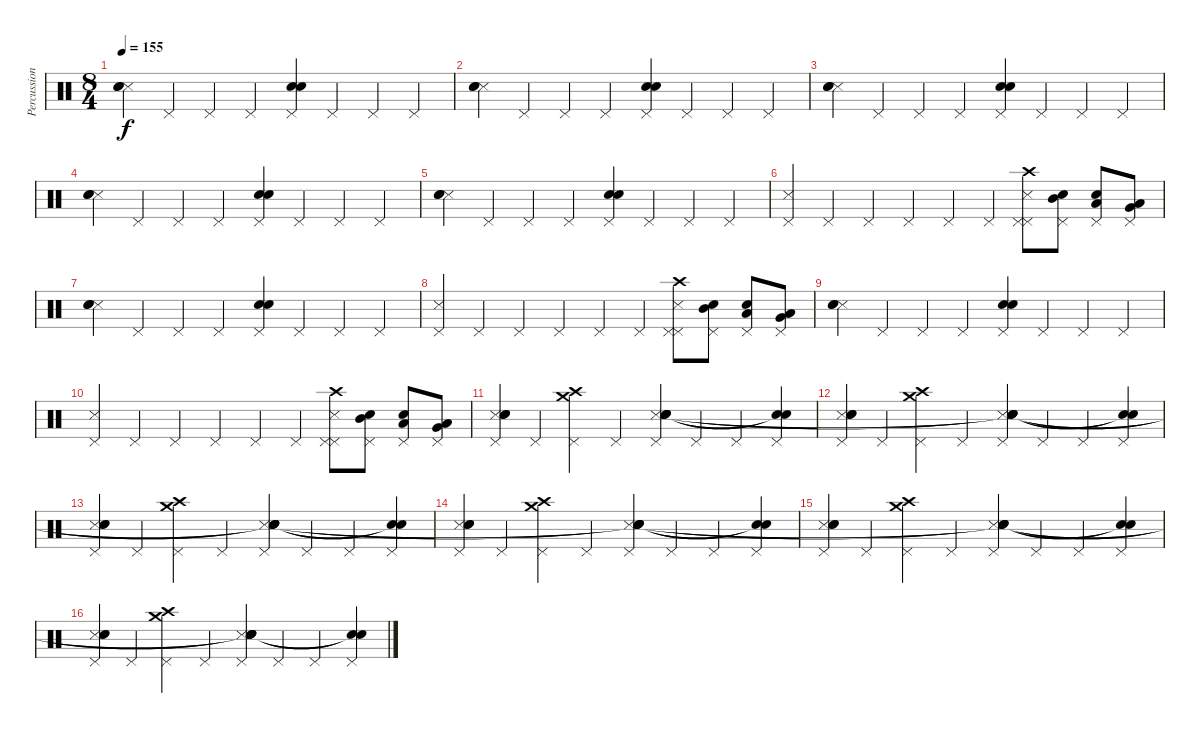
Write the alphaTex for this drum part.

\track ("Percussion" "Percussion") {instrument percussion}
\staff {score}
\articulation defaults
\ts (8 4)
\tempo 155
\clef neutral
\ks c
("Snare (side stick) 3" "Electric Snare (hit)" "Snare (hit) 2").4{dy f} "Pedal Hi-Hat (hit)".4 "Pedal Hi-Hat (hit)".4 "Pedal Hi-Hat (hit)".4 ("Pedal Hi-Hat (hit)" "Electric Snare (hit)" "Snare (hit) 2").4 "Pedal Hi-Hat (hit)".4 "Pedal Hi-Hat (hit)".4 "Pedal Hi-Hat (hit)".4 |
("Snare (side stick) 3" "Electric Snare (hit)" "Snare (hit) 2").4 "Pedal Hi-Hat (hit)".4 "Pedal Hi-Hat (hit)".4 "Pedal Hi-Hat (hit)".4 ("Pedal Hi-Hat (hit)" "Electric Snare (hit)" "Snare (hit) 2").4 "Pedal Hi-Hat (hit)".4 "Pedal Hi-Hat (hit)".4 "Pedal Hi-Hat (hit)".4 |
("Snare (side stick) 3" "Electric Snare (hit)" "Snare (hit) 2").4 "Pedal Hi-Hat (hit)".4 "Pedal Hi-Hat (hit)".4 "Pedal Hi-Hat (hit)".4 ("Pedal Hi-Hat (hit)" "Electric Snare (hit)" "Snare (hit) 2").4 "Pedal Hi-Hat (hit)".4 "Pedal Hi-Hat (hit)".4 "Pedal Hi-Hat (hit)".4 |
("Snare (side stick) 3" "Electric Snare (hit)" "Snare (hit) 2").4 "Pedal Hi-Hat (hit)".4 "Pedal Hi-Hat (hit)".4 "Pedal Hi-Hat (hit)".4 ("Pedal Hi-Hat (hit)" "Electric Snare (hit)" "Snare (hit) 2").4 "Pedal Hi-Hat (hit)".4 "Pedal Hi-Hat (hit)".4 "Pedal Hi-Hat (hit)".4 |
("Snare (side stick) 3" "Electric Snare (hit)" "Snare (hit) 2").4 "Pedal Hi-Hat (hit)".4 "Pedal Hi-Hat (hit)".4 "Pedal Hi-Hat (hit)".4 ("Pedal Hi-Hat (hit)" "Electric Snare (hit)" "Snare (hit) 2").4 "Pedal Hi-Hat (hit)".4 "Pedal Hi-Hat (hit)".4 "Pedal Hi-Hat (hit)".4 |
("Snare (side stick) 3" "Pedal Hi-Hat (hit)").4 "Pedal Hi-Hat (hit)".4 "Pedal Hi-Hat (hit)".4 "Pedal Hi-Hat (hit)".4 "Pedal Hi-Hat (hit)".4 "Pedal Hi-Hat (hit)".4 ("Pedal Hi-Hat (hit)" "Snare (side stick) 3" "Pedal Hi-Hat (hit)" "Crash high (hit)").8 ("Pedal Hi-Hat (hit)" "Snare (hit) 2" "Mid Tom (hit)").8 ("Pedal Hi-Hat (hit)" "Electric Snare (hit)" "Low Tom (hit)").8 ("Pedal Hi-Hat (hit)" "Low Floor Tom (hit)" "Very Low Tom (hit)").8 |
("Snare (side stick) 3" "Electric Snare (hit)" "Snare (hit) 2").4 "Pedal Hi-Hat (hit)".4 "Pedal Hi-Hat (hit)".4 "Pedal Hi-Hat (hit)".4 ("Pedal Hi-Hat (hit)" "Electric Snare (hit)" "Snare (hit) 2").4 "Pedal Hi-Hat (hit)".4 "Pedal Hi-Hat (hit)".4 "Pedal Hi-Hat (hit)".4 |
("Snare (side stick) 3" "Pedal Hi-Hat (hit)").4 "Pedal Hi-Hat (hit)".4 "Pedal Hi-Hat (hit)".4 "Pedal Hi-Hat (hit)".4 "Pedal Hi-Hat (hit)".4 "Pedal Hi-Hat (hit)".4 ("Pedal Hi-Hat (hit)" "Snare (side stick) 3" "Pedal Hi-Hat (hit)" "Crash high (hit)").8 ("Pedal Hi-Hat (hit)" "Snare (hit) 2" "Mid Tom (hit)").8 ("Pedal Hi-Hat (hit)" "Electric Snare (hit)" "Low Tom (hit)").8 ("Pedal Hi-Hat (hit)" "Low Floor Tom (hit)" "Very Low Tom (hit)").8 |
("Snare (side stick) 3" "Electric Snare (hit)" "Snare (hit) 2").4 "Pedal Hi-Hat (hit)".4 "Pedal Hi-Hat (hit)".4 "Pedal Hi-Hat (hit)".4 ("Pedal Hi-Hat (hit)" "Electric Snare (hit)" "Snare (hit) 2").4 "Pedal Hi-Hat (hit)".4 "Pedal Hi-Hat (hit)".4 "Pedal Hi-Hat (hit)".4 |
("Snare (side stick) 3" "Pedal Hi-Hat (hit)").4 "Pedal Hi-Hat (hit)".4 "Pedal Hi-Hat (hit)".4 "Pedal Hi-Hat (hit)".4 "Pedal Hi-Hat (hit)".4 "Pedal Hi-Hat (hit)".4 ("Pedal Hi-Hat (hit)" "Snare (side stick) 3" "Pedal Hi-Hat (hit)" "Crash high (hit)").8 ("Pedal Hi-Hat (hit)" "Snare (hit) 2" "Mid Tom (hit)").8 ("Pedal Hi-Hat (hit)" "Electric Snare (hit)" "Low Tom (hit)").8 ("Pedal Hi-Hat (hit)" "Low Floor Tom (hit)" "Very Low Tom (hit)").8 |
("Snare (side stick) 3" "Pedal Hi-Hat (hit)" "Electric Snare (hit)" "Snare (hit) 2").4 "Pedal Hi-Hat (hit)".4 ("Pedal Hi-Hat (hit)" "Crash medium (hit)" "Crash high (hit)").4 "Pedal Hi-Hat (hit)".4 ("Pedal Hi-Hat (hit)" "Snare (side stick) 3" "Electric Snare (hit)" "Snare (hit) 2" "Snare (hit)" "Snare (hit)").4 "Pedal Hi-Hat (hit)".4 "Pedal Hi-Hat (hit)".4 ("Pedal Hi-Hat (hit)" "Snare (hit)"{t} "Snare (hit)"{t}).4 |
("Snare (side stick) 3" "Pedal Hi-Hat (hit)" "Electric Snare (hit)" "Snare (hit) 2").4 "Pedal Hi-Hat (hit)".4 ("Pedal Hi-Hat (hit)" "Crash medium (hit)" "Crash high (hit)").4 "Pedal Hi-Hat (hit)".4 ("Pedal Hi-Hat (hit)" "Snare (side stick) 3" "Electric Snare (hit)" "Snare (hit) 2" "Snare (hit)"{t} "Snare (hit)"{t}).4 "Pedal Hi-Hat (hit)".4 "Pedal Hi-Hat (hit)".4 ("Pedal Hi-Hat (hit)" "Snare (hit)"{t} "Snare (hit)"{t}).4 |
("Snare (side stick) 3" "Pedal Hi-Hat (hit)" "Electric Snare (hit)" "Snare (hit) 2").4 "Pedal Hi-Hat (hit)".4 ("Pedal Hi-Hat (hit)" "Crash medium (hit)" "Crash high (hit)").4 "Pedal Hi-Hat (hit)".4 ("Pedal Hi-Hat (hit)" "Snare (side stick) 3" "Electric Snare (hit)" "Snare (hit) 2" "Snare (hit)"{t} "Snare (hit)"{t}).4 "Pedal Hi-Hat (hit)".4 "Pedal Hi-Hat (hit)".4 ("Pedal Hi-Hat (hit)" "Snare (hit)"{t} "Snare (hit)"{t}).4 |
("Snare (side stick) 3" "Pedal Hi-Hat (hit)" "Electric Snare (hit)" "Snare (hit) 2").4 "Pedal Hi-Hat (hit)".4 ("Pedal Hi-Hat (hit)" "Crash medium (hit)" "Crash high (hit)").4 "Pedal Hi-Hat (hit)".4 ("Pedal Hi-Hat (hit)" "Snare (side stick) 3" "Electric Snare (hit)" "Snare (hit) 2" "Snare (hit)"{t} "Snare (hit)"{t}).4 "Pedal Hi-Hat (hit)".4 "Pedal Hi-Hat (hit)".4 ("Pedal Hi-Hat (hit)" "Snare (hit)"{t} "Snare (hit)"{t}).4 |
("Snare (side stick) 3" "Pedal Hi-Hat (hit)" "Electric Snare (hit)" "Snare (hit) 2").4 "Pedal Hi-Hat (hit)".4 ("Pedal Hi-Hat (hit)" "Crash medium (hit)" "Crash high (hit)").4 "Pedal Hi-Hat (hit)".4 ("Pedal Hi-Hat (hit)" "Snare (side stick) 3" "Electric Snare (hit)" "Snare (hit) 2" "Snare (hit)"{t} "Snare (hit)"{t}).4 "Pedal Hi-Hat (hit)".4 "Pedal Hi-Hat (hit)".4 ("Pedal Hi-Hat (hit)" "Snare (hit)"{t} "Snare (hit)"{t}).4 |
("Snare (side stick) 3" "Pedal Hi-Hat (hit)" "Electric Snare (hit)" "Snare (hit) 2").4 "Pedal Hi-Hat (hit)".4 ("Pedal Hi-Hat (hit)" "Crash medium (hit)" "Crash high (hit)").4 "Pedal Hi-Hat (hit)".4 ("Pedal Hi-Hat (hit)" "Snare (side stick) 3" "Electric Snare (hit)" "Snare (hit) 2" "Snare (hit)"{t} "Snare (hit)"{t}).4 "Pedal Hi-Hat (hit)".4 "Pedal Hi-Hat (hit)".4 ("Pedal Hi-Hat (hit)" "Snare (hit)"{t} "Snare (hit)"{t}).4
